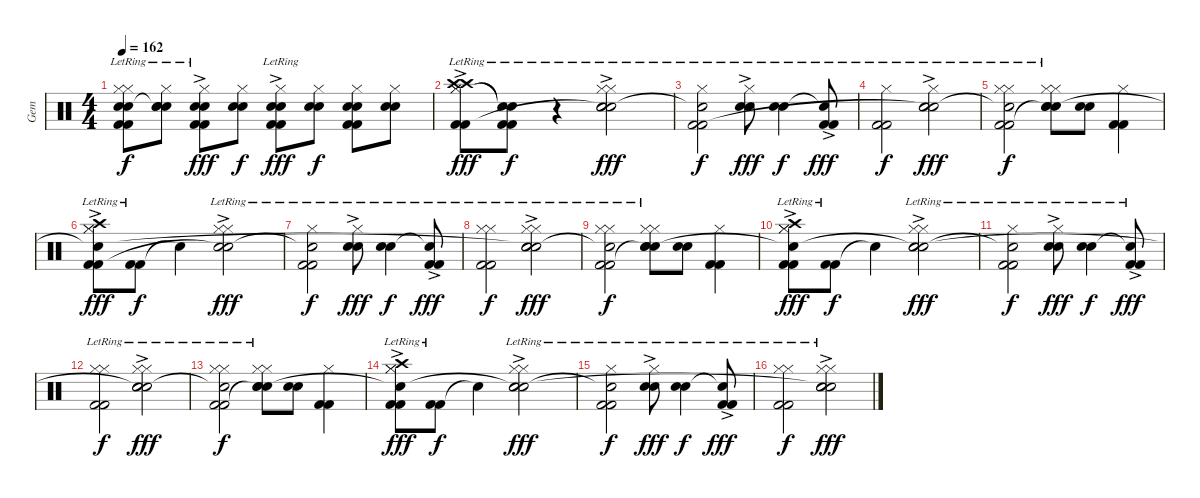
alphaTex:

\track ("Gem" "Gem") {instrument percussion}
\staff {score}
\articulation defaults
\ts (4 4)
\tempo 162
\clef neutral
\ks c
("Hi-Hat (closed)"{lr} "Hi-Hat (closed)"{lr} "Electric Snare (hit)"{lr} "Snare (hit) 2" "Kick (hit) 2" "Kick (hit) 2"{lr}).8{dy f} ("Hi-Hat (closed)"{lr} "Electric Snare (hit)" "Snare (hit) 2" "Snare (hit)"{t}).8 ("Hi-Hat (closed)" "Electric Snare (hit)"{lr} "Snare (hit) 2"{ac} "Kick (hit) 2" "Kick (hit) 2").8{dy fff} ("Hi-Hat (closed)" "Electric Snare (hit)" "Snare (hit) 2").8{dy f} ("Hi-Hat (closed)" "Electric Snare (hit)"{lr} "Snare (hit) 2"{ac lr} "Kick (hit) 2" "Kick (hit) 2").8{dy fff} ("Hi-Hat (closed)" "Electric Snare (hit)" "Snare (hit) 2").8{dy f} ("Hi-Hat (closed)" "Electric Snare (hit)" "Snare (hit) 2" "Kick (hit) 2" "Kick (hit) 2").8 ("Hi-Hat (closed)" "Electric Snare (hit)" "Snare (hit) 2").8 |
("Hi-Hat (closed)"{lr} "Hi-Hat (closed)"{lr} "Crash high (hit)"{ac lr} "Crash high (hit)"{ac lr} "Kick (hit) 2" "Kick (hit) 2"{lr}).8{dy fff} ("Snare (hit)"{t} "Snare (hit)"{t} "Kick (hit) 2" "Kick (hit) 2"{lr}).8{dy f} r.4 ("Hi-Hat (closed)"{lr} "Hi-Hat (closed)"{lr} "Snare (hit) 2" "Snare (hit) 2"{ac lr} "Snare (hit)"{t}).2{dy fff} |
("Hi-Hat (closed)"{lr} "Kick (hit) 2" "Snare (hit)"{t} "Kick (hit) 2"{lr}).2{dy f} ("Hi-Hat (closed)"{lr} "Snare (hit) 2" "Snare (hit) 2"{ac lr}).8{dy fff} ("Snare (hit) 2" "Snare (hit) 2"{lr}).4{dy f} ("Kick (hit) 2" "Snare (hit)"{t} "Kick (hit) 2"{ac lr}).8{dy fff} |
("Hi-Hat (closed)"{lr} "Kick (hit) 2"{lr} "Kick (hit) 2"{lr}).2{dy f} ("Hi-Hat (closed)"{lr} "Snare (hit) 2"{lr} "Snare (hit) 2"{ac lr} "Snare (hit)"{t}).2{dy fff} |
("Hi-Hat (closed)"{lr} "Hi-Hat (closed)"{lr} "Kick (hit) 2" "Snare (hit)"{t} "Kick (hit) 2"{lr}).2{dy f} ("Hi-Hat (closed)"{lr} "Hi-Hat (closed)"{lr} "Snare (hit) 2" "Snare (hit) 2"{lr} "Snare (hit)"{t}).8 ("Snare (hit) 2" "Snare (hit) 2").8 ("Hi-Hat (closed)" "Kick (hit) 2" "Kick (hit) 2").4 |
("Hi-Hat (closed)"{lr} "Hi-Hat (closed)"{lr} "Crash high (hit)"{ac lr} "Kick (hit) 2" "Snare (hit)"{t} "Kick (hit) 2"{lr}).8{dy fff} ("Kick (hit) 2" "Kick (hit) 2"{lr}).8{dy f} "Snare (hit)"{t}.4 ("Hi-Hat (closed)"{lr} "Hi-Hat (closed)"{lr} "Snare (hit) 2"{ac lr} "Snare (hit)"{t}).2{dy fff} |
("Hi-Hat (closed)"{lr} "Kick (hit) 2" "Snare (hit)"{t} "Kick (hit) 2"{lr}).2{dy f} ("Hi-Hat (closed)"{lr} "Snare (hit) 2" "Snare (hit) 2"{ac lr}).8{dy fff} ("Snare (hit) 2" "Snare (hit) 2"{lr}).4{dy f} ("Kick (hit) 2" "Snare (hit)"{t} "Kick (hit) 2"{ac lr}).8{dy fff} |
("Hi-Hat (closed)"{lr} "Hi-Hat (closed)"{lr} "Kick (hit) 2" "Kick (hit) 2"{lr}).2{dy f} ("Hi-Hat (closed)"{lr} "Hi-Hat (closed)"{lr} "Snare (hit) 2" "Snare (hit) 2"{ac lr} "Snare (hit)"{t}).2{dy fff} |
("Hi-Hat (closed)"{lr} "Hi-Hat (closed)"{lr} "Kick (hit) 2" "Snare (hit)"{t} "Kick (hit) 2"{lr}).2{dy f} ("Hi-Hat (closed)"{lr} "Hi-Hat (closed)"{lr} "Snare (hit) 2" "Snare (hit) 2"{lr} "Snare (hit)"{t}).8 ("Snare (hit) 2" "Snare (hit) 2").8 ("Hi-Hat (closed)" "Kick (hit) 2" "Kick (hit) 2").4 |
("Hi-Hat (closed)"{lr} "Hi-Hat (closed)"{lr} "Crash high (hit)"{ac lr} "Kick (hit) 2" "Snare (hit)"{t} "Kick (hit) 2"{lr}).8{dy fff} ("Kick (hit) 2" "Kick (hit) 2"{lr}).8{dy f} "Snare (hit)"{t}.4 ("Hi-Hat (closed)"{lr} "Hi-Hat (closed)"{lr} "Snare (hit) 2" "Snare (hit) 2"{ac lr} "Snare (hit)"{t}).2{dy fff} |
("Hi-Hat (closed)"{lr} "Kick (hit) 2" "Snare (hit)"{t} "Kick (hit) 2"{lr}).2{dy f} ("Hi-Hat (closed)"{lr} "Snare (hit) 2" "Snare (hit) 2"{ac lr}).8{dy fff} ("Snare (hit) 2" "Snare (hit) 2"{lr}).4{dy f} ("Kick (hit) 2" "Snare (hit)"{t} "Kick (hit) 2"{ac lr}).8{dy fff} |
("Hi-Hat (closed)"{lr} "Hi-Hat (closed)"{lr} "Kick (hit) 2" "Kick (hit) 2"{lr}).2{dy f} ("Hi-Hat (closed)"{lr} "Hi-Hat (closed)"{lr} "Snare (hit) 2" "Snare (hit) 2"{ac lr} "Snare (hit)"{t}).2{dy fff} |
("Hi-Hat (closed)"{lr} "Hi-Hat (closed)"{lr} "Kick (hit) 2" "Snare (hit)"{t} "Kick (hit) 2"{lr}).2{dy f} ("Hi-Hat (closed)"{lr} "Hi-Hat (closed)"{lr} "Snare (hit) 2" "Snare (hit) 2"{lr} "Snare (hit)"{t}).8 ("Snare (hit) 2" "Snare (hit) 2").8 ("Hi-Hat (closed)" "Kick (hit) 2" "Kick (hit) 2").4 |
("Hi-Hat (closed)"{lr} "Hi-Hat (closed)"{lr} "Crash high (hit)"{ac lr} "Kick (hit) 2" "Snare (hit)"{t} "Kick (hit) 2"{lr}).8{dy fff} ("Kick (hit) 2" "Kick (hit) 2"{lr}).8{dy f} "Snare (hit)"{t}.4 ("Hi-Hat (closed)"{lr} "Hi-Hat (closed)"{lr} "Snare (hit) 2" "Snare (hit) 2"{ac lr} "Snare (hit)"{t}).2{dy fff} |
("Hi-Hat (closed)"{lr} "Kick (hit) 2" "Snare (hit)"{t} "Kick (hit) 2"{lr}).2{dy f} ("Hi-Hat (closed)"{lr} "Snare (hit) 2" "Snare (hit) 2"{ac lr}).8{dy fff} ("Snare (hit) 2" "Snare (hit) 2"{lr}).4{dy f} ("Kick (hit) 2" "Snare (hit)"{t} "Kick (hit) 2"{ac lr}).8{dy fff} |
("Hi-Hat (closed)"{lr} "Hi-Hat (closed)"{lr} "Kick (hit) 2" "Kick (hit) 2"{lr}).2{dy f} ("Hi-Hat (closed)"{lr} "Hi-Hat (closed)"{lr} "Snare (hit) 2" "Snare (hit) 2"{ac lr} "Snare (hit)"{t}).2{dy fff}
